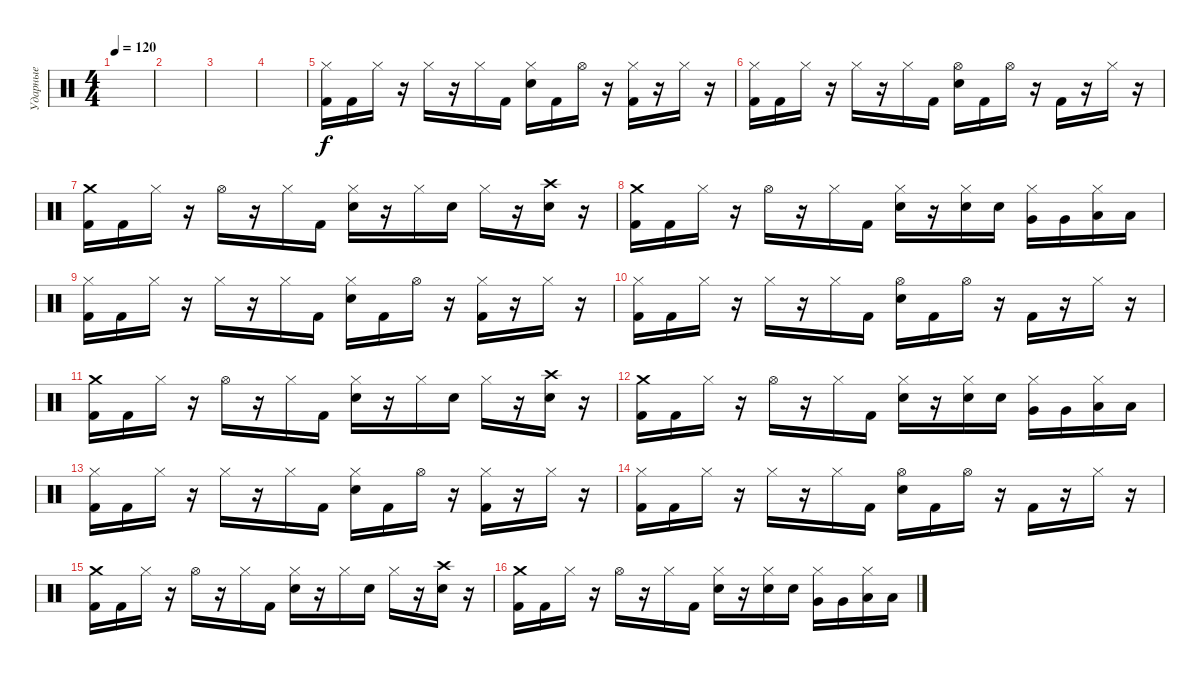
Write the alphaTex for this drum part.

\track ("Ударные" "Ударные") {instrument percussion}
\staff {score}
\articulation defaults
\ts (4 4)
\tempo 120
\clef neutral
\ks c
|
|
|
|
("Hi-Hat (closed)" "Kick (hit) 2").16 "Kick (hit) 2".16 "Hi-Hat (closed)".16 r.16 "Hi-Hat (closed)".16 r.16 "Hi-Hat (closed)".16 "Kick (hit) 2".16 ("Hi-Hat (closed)" "Electric Snare (hit)").16 "Kick (hit) 2".16 "Hi-Hat (open)".16 r.16 ("Hi-Hat (closed)" "Kick (hit) 2").16 r.16 "Hi-Hat (closed)".16 r.16 |
("Hi-Hat (closed)" "Kick (hit) 2").16 "Kick (hit) 2".16 "Hi-Hat (closed)".16 r.16 "Hi-Hat (closed)".16 r.16 "Hi-Hat (closed)".16 "Kick (hit) 2".16 ("Hi-Hat (open)" "Electric Snare (hit)").16 "Kick (hit) 2".16 "Hi-Hat (open)".16 r.16 "Kick (hit) 2".16 r.16 "Hi-Hat (closed)".16 r.16 |
("Crash medium (hit)" "Kick (hit) 2").16 "Kick (hit) 2".16 "Hi-Hat (closed)".16 r.16 "Hi-Hat (open)".16 r.16 "Hi-Hat (closed)".16 "Kick (hit) 2".16 ("Hi-Hat (closed)" "Electric Snare (hit)").16 r.16 "Hi-Hat (closed)".16 "Electric Snare (hit)".16 "Hi-Hat (closed)".16 r.16 ("Crash high (hit)" "Electric Snare (hit)").16 r.16 |
("Crash medium (hit)" "Kick (hit) 2").16 "Kick (hit) 2".16 "Hi-Hat (closed)".16 r.16 "Hi-Hat (open)".16 r.16 "Hi-Hat (closed)".16 "Kick (hit) 2".16 ("Hi-Hat (closed)" "Electric Snare (hit)").16 r.16 ("Hi-Hat (closed)" "Electric Snare (hit)").16 "Electric Snare (hit)".16 ("Hi-Hat (closed)" "Very Low Tom (hit)").16 "Very Low Tom (hit)".16 ("Hi-Hat (closed)" "Low Tom (hit)").16 "Low Tom (hit)".16 |
("Hi-Hat (closed)" "Kick (hit) 2").16 "Kick (hit) 2".16 "Hi-Hat (closed)".16 r.16 "Hi-Hat (closed)".16 r.16 "Hi-Hat (closed)".16 "Kick (hit) 2".16 ("Hi-Hat (closed)" "Electric Snare (hit)").16 "Kick (hit) 2".16 "Hi-Hat (open)".16 r.16 ("Hi-Hat (closed)" "Kick (hit) 2").16 r.16 "Hi-Hat (closed)".16 r.16 |
("Hi-Hat (closed)" "Kick (hit) 2").16 "Kick (hit) 2".16 "Hi-Hat (closed)".16 r.16 "Hi-Hat (closed)".16 r.16 "Hi-Hat (closed)".16 "Kick (hit) 2".16 ("Hi-Hat (open)" "Electric Snare (hit)").16 "Kick (hit) 2".16 "Hi-Hat (open)".16 r.16 "Kick (hit) 2".16 r.16 "Hi-Hat (closed)".16 r.16 |
("Crash medium (hit)" "Kick (hit) 2").16 "Kick (hit) 2".16 "Hi-Hat (closed)".16 r.16 "Hi-Hat (open)".16 r.16 "Hi-Hat (closed)".16 "Kick (hit) 2".16 ("Hi-Hat (closed)" "Electric Snare (hit)").16 r.16 "Hi-Hat (closed)".16 "Electric Snare (hit)".16 "Hi-Hat (closed)".16 r.16 ("Crash high (hit)" "Electric Snare (hit)").16 r.16 |
("Crash medium (hit)" "Kick (hit) 2").16 "Kick (hit) 2".16 "Hi-Hat (closed)".16 r.16 "Hi-Hat (open)".16 r.16 "Hi-Hat (closed)".16 "Kick (hit) 2".16 ("Hi-Hat (closed)" "Electric Snare (hit)").16 r.16 ("Hi-Hat (closed)" "Electric Snare (hit)").16 "Electric Snare (hit)".16 ("Hi-Hat (closed)" "Very Low Tom (hit)").16 "Very Low Tom (hit)".16 ("Hi-Hat (closed)" "Low Tom (hit)").16 "Low Tom (hit)".16 |
("Hi-Hat (closed)" "Kick (hit) 2").16 "Kick (hit) 2".16 "Hi-Hat (closed)".16 r.16 "Hi-Hat (closed)".16 r.16 "Hi-Hat (closed)".16 "Kick (hit) 2".16 ("Hi-Hat (closed)" "Electric Snare (hit)").16 "Kick (hit) 2".16 "Hi-Hat (open)".16 r.16 ("Hi-Hat (closed)" "Kick (hit) 2").16 r.16 "Hi-Hat (closed)".16 r.16 |
("Hi-Hat (closed)" "Kick (hit) 2").16 "Kick (hit) 2".16 "Hi-Hat (closed)".16 r.16 "Hi-Hat (closed)".16 r.16 "Hi-Hat (closed)".16 "Kick (hit) 2".16 ("Hi-Hat (open)" "Electric Snare (hit)").16 "Kick (hit) 2".16 "Hi-Hat (open)".16 r.16 "Kick (hit) 2".16 r.16 "Hi-Hat (closed)".16 r.16 |
("Crash medium (hit)" "Kick (hit) 2").16 "Kick (hit) 2".16 "Hi-Hat (closed)".16 r.16 "Hi-Hat (open)".16 r.16 "Hi-Hat (closed)".16 "Kick (hit) 2".16 ("Hi-Hat (closed)" "Electric Snare (hit)").16 r.16 "Hi-Hat (closed)".16 "Electric Snare (hit)".16 "Hi-Hat (closed)".16 r.16 ("Crash high (hit)" "Electric Snare (hit)").16 r.16 |
("Crash medium (hit)" "Kick (hit) 2").16 "Kick (hit) 2".16 "Hi-Hat (closed)".16 r.16 "Hi-Hat (open)".16 r.16 "Hi-Hat (closed)".16 "Kick (hit) 2".16 ("Hi-Hat (closed)" "Electric Snare (hit)").16 r.16 ("Hi-Hat (closed)" "Electric Snare (hit)").16 "Electric Snare (hit)".16 ("Hi-Hat (closed)" "Very Low Tom (hit)").16 "Very Low Tom (hit)".16 ("Hi-Hat (closed)" "Low Tom (hit)").16 "Low Tom (hit)".16
